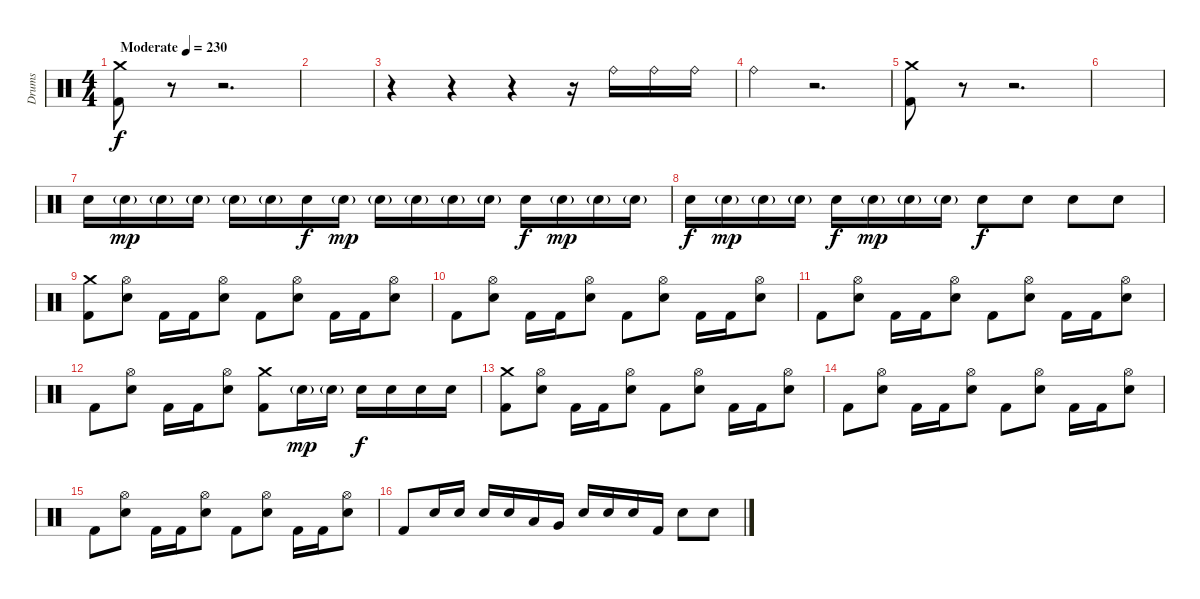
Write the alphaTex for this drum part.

\track ("Drums" "Drums") {instrument percussion}
\staff {score}
\articulation defaults
\ts (4 4)
\tempo (230 "Moderate")
\clef neutral
\ks c
("Crash medium (hit)" "Kick (hit) 2").8{dy f} r.8 r.2{d} |
|
r.4 r.4 r.4 r.16 "Ride (bell)".16 "Ride (bell)".16 "Ride (bell)".16 |
"Ride (bell)".4 r.2{d} |
("Crash medium (hit)" "Kick (hit) 2").8 r.8 r.2{d} |
|
"Electric Snare (hit)".16 "Electric Snare (hit)"{g}.16{dy mp} "Electric Snare (hit)"{g}.16 "Electric Snare (hit)"{g}.16 "Electric Snare (hit)"{g}.16 "Electric Snare (hit)"{g}.16 "Electric Snare (hit)".16{dy f} "Electric Snare (hit)"{g}.16{dy mp} "Electric Snare (hit)"{g}.16 "Electric Snare (hit)"{g}.16 "Electric Snare (hit)"{g}.16 "Electric Snare (hit)"{g}.16 "Electric Snare (hit)".16{dy f} "Electric Snare (hit)"{g}.16{dy mp} "Electric Snare (hit)"{g}.16 "Electric Snare (hit)"{g}.16 |
"Electric Snare (hit)".16{dy f} "Electric Snare (hit)"{g}.16{dy mp} "Electric Snare (hit)"{g}.16 "Electric Snare (hit)"{g}.16 "Electric Snare (hit)".16{dy f} "Electric Snare (hit)"{g}.16{dy mp} "Electric Snare (hit)"{g}.16 "Electric Snare (hit)"{g}.16 "Electric Snare (hit)".8{dy f} "Electric Snare (hit)".8 "Electric Snare (hit)".8 "Electric Snare (hit)".8 |
("Crash medium (hit)" "Kick (hit) 2").8 ("Hi-Hat (open)" "Electric Snare (hit)").8 "Kick (hit) 2".16 "Kick (hit) 2".16 ("Hi-Hat (open)" "Electric Snare (hit)").8 "Kick (hit) 2".8 ("Hi-Hat (open)" "Electric Snare (hit)").8 "Kick (hit) 2".16 "Kick (hit) 2".16 ("Hi-Hat (open)" "Electric Snare (hit)").8 |
"Kick (hit) 2".8 ("Hi-Hat (open)" "Electric Snare (hit)").8 "Kick (hit) 2".16 "Kick (hit) 2".16 ("Hi-Hat (open)" "Electric Snare (hit)").8 "Kick (hit) 2".8 ("Hi-Hat (open)" "Electric Snare (hit)").8 "Kick (hit) 2".16 "Kick (hit) 2".16 ("Hi-Hat (open)" "Electric Snare (hit)").8 |
"Kick (hit) 2".8 ("Hi-Hat (open)" "Electric Snare (hit)").8 "Kick (hit) 2".16 "Kick (hit) 2".16 ("Hi-Hat (open)" "Electric Snare (hit)").8 "Kick (hit) 2".8 ("Hi-Hat (open)" "Electric Snare (hit)").8 "Kick (hit) 2".16 "Kick (hit) 2".16 ("Hi-Hat (open)" "Electric Snare (hit)").8 |
"Kick (hit) 2".8 ("Hi-Hat (open)" "Electric Snare (hit)").8 "Kick (hit) 2".16 "Kick (hit) 2".16 ("Hi-Hat (open)" "Electric Snare (hit)").8 ("Crash medium (hit)" "Kick (hit) 2").8 "Electric Snare (hit)"{g}.16{dy mp} "Electric Snare (hit)"{g}.16 "Electric Snare (hit)".16{dy f} "Electric Snare (hit)".16 "Electric Snare (hit)".16 "Electric Snare (hit)".16 |
("Crash medium (hit)" "Kick (hit) 2").8 ("Hi-Hat (open)" "Electric Snare (hit)").8 "Kick (hit) 2".16 "Kick (hit) 2".16 ("Hi-Hat (open)" "Electric Snare (hit)").8 "Kick (hit) 2".8 ("Hi-Hat (open)" "Electric Snare (hit)").8 "Kick (hit) 2".16 "Kick (hit) 2".16 ("Hi-Hat (open)" "Electric Snare (hit)").8 |
"Kick (hit) 2".8 ("Hi-Hat (open)" "Electric Snare (hit)").8 "Kick (hit) 2".16 "Kick (hit) 2".16 ("Hi-Hat (open)" "Electric Snare (hit)").8 "Kick (hit) 2".8 ("Hi-Hat (open)" "Electric Snare (hit)").8 "Kick (hit) 2".16 "Kick (hit) 2".16 ("Hi-Hat (open)" "Electric Snare (hit)").8 |
"Kick (hit) 2".8 ("Hi-Hat (open)" "Electric Snare (hit)").8 "Kick (hit) 2".16 "Kick (hit) 2".16 ("Hi-Hat (open)" "Electric Snare (hit)").8 "Kick (hit) 2".8 ("Hi-Hat (open)" "Electric Snare (hit)").8 "Kick (hit) 2".16 "Kick (hit) 2".16 ("Hi-Hat (open)" "Electric Snare (hit)").8 |
"Kick (hit) 2".8 "Electric Snare (hit)".16 "Electric Snare (hit)".16 "Electric Snare (hit)".16 "Electric Snare (hit)".16 "Low Tom (hit)".16 "Very Low Tom (hit)".16 "Electric Snare (hit)".16 "Electric Snare (hit)".16 "Electric Snare (hit)".16 "Kick (hit) 2".16 "Electric Snare (hit)".8 "Electric Snare (hit)".8
